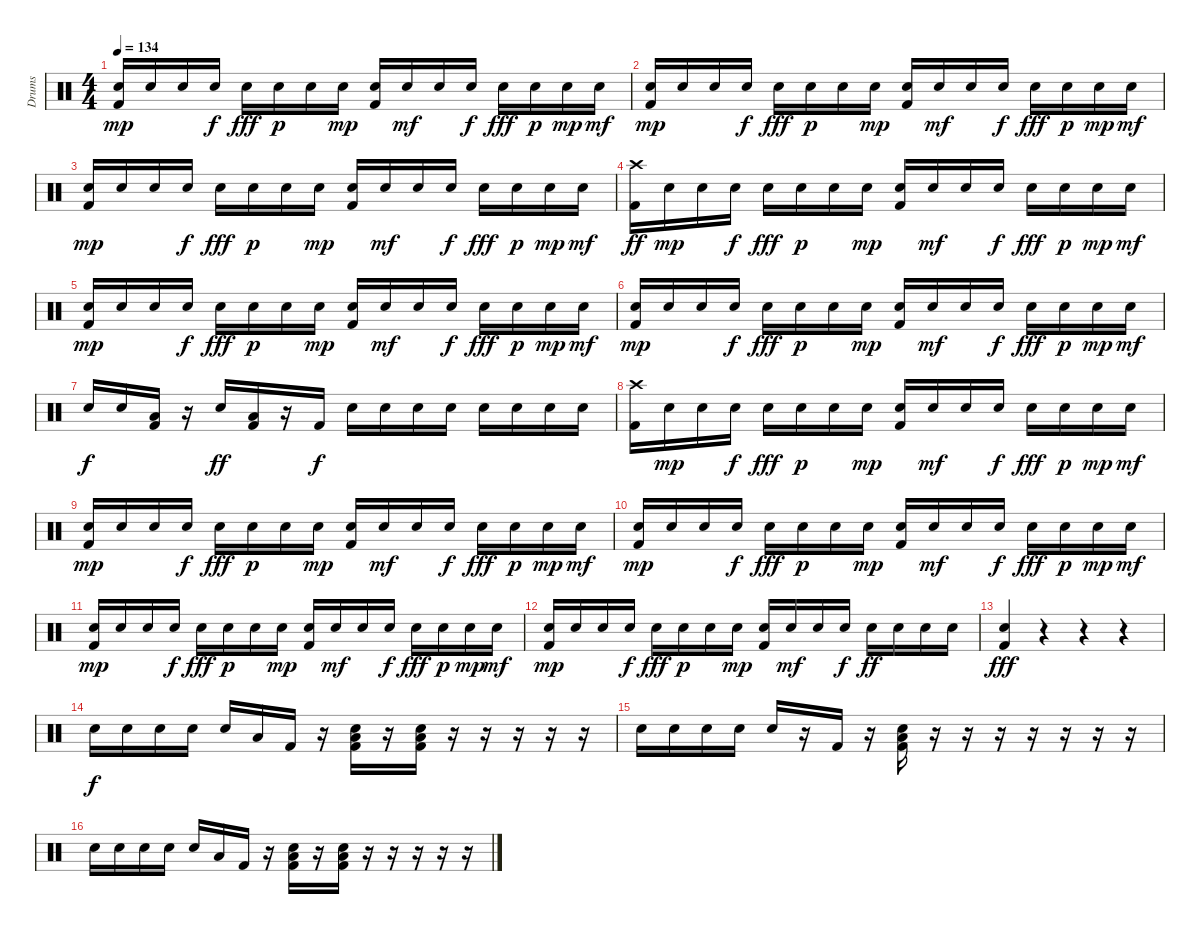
\track ("Drums" "Drums") {instrument percussion}
\staff {score}
\articulation defaults
\ts (4 4)
\tempo 134
\clef neutral
\ks c
("Snare (hit) 2" "Kick (hit) 2").16{dy mp} "Snare (hit) 2".16 "Snare (hit) 2".16 "Snare (hit) 2".16{dy f} "Snare (hit) 2".16{dy fff} "Snare (hit) 2".16{dy p} "Snare (hit) 2".16 "Snare (hit) 2".16{dy mp} ("Snare (hit) 2" "Kick (hit) 2").16 "Snare (hit) 2".16{dy mf} "Snare (hit) 2".16 "Snare (hit) 2".16{dy f} "Snare (hit) 2".16{dy fff} "Snare (hit) 2".16{dy p} "Snare (hit) 2".16{dy mp} "Snare (hit) 2".16{dy mf} |
("Snare (hit) 2" "Kick (hit) 2").16{dy mp} "Snare (hit) 2".16 "Snare (hit) 2".16 "Snare (hit) 2".16{dy f} "Snare (hit) 2".16{dy fff} "Snare (hit) 2".16{dy p} "Snare (hit) 2".16 "Snare (hit) 2".16{dy mp} ("Snare (hit) 2" "Kick (hit) 2").16 "Snare (hit) 2".16{dy mf} "Snare (hit) 2".16 "Snare (hit) 2".16{dy f} "Snare (hit) 2".16{dy fff} "Snare (hit) 2".16{dy p} "Snare (hit) 2".16{dy mp} "Snare (hit) 2".16{dy mf} |
("Snare (hit) 2" "Kick (hit) 2").16{dy mp} "Snare (hit) 2".16 "Snare (hit) 2".16 "Snare (hit) 2".16{dy f} "Snare (hit) 2".16{dy fff} "Snare (hit) 2".16{dy p} "Snare (hit) 2".16 "Snare (hit) 2".16{dy mp} ("Snare (hit) 2" "Kick (hit) 2").16 "Snare (hit) 2".16{dy mf} "Snare (hit) 2".16 "Snare (hit) 2".16{dy f} "Snare (hit) 2".16{dy fff} "Snare (hit) 2".16{dy p} "Snare (hit) 2".16{dy mp} "Snare (hit) 2".16{dy mf} |
("Crash high (hit)" "Kick (hit) 2").16{dy ff} "Snare (hit) 2".16{dy mp} "Snare (hit) 2".16 "Snare (hit) 2".16{dy f} "Snare (hit) 2".16{dy fff} "Snare (hit) 2".16{dy p} "Snare (hit) 2".16 "Snare (hit) 2".16{dy mp} ("Snare (hit) 2" "Kick (hit) 2").16 "Snare (hit) 2".16{dy mf} "Snare (hit) 2".16 "Snare (hit) 2".16{dy f} "Snare (hit) 2".16{dy fff} "Snare (hit) 2".16{dy p} "Snare (hit) 2".16{dy mp} "Snare (hit) 2".16{dy mf} |
("Snare (hit) 2" "Kick (hit) 2").16{dy mp} "Snare (hit) 2".16 "Snare (hit) 2".16 "Snare (hit) 2".16{dy f} "Snare (hit) 2".16{dy fff} "Snare (hit) 2".16{dy p} "Snare (hit) 2".16 "Snare (hit) 2".16{dy mp} ("Snare (hit) 2" "Kick (hit) 2").16 "Snare (hit) 2".16{dy mf} "Snare (hit) 2".16 "Snare (hit) 2".16{dy f} "Snare (hit) 2".16{dy fff} "Snare (hit) 2".16{dy p} "Snare (hit) 2".16{dy mp} "Snare (hit) 2".16{dy mf} |
("Snare (hit) 2" "Kick (hit) 2").16{dy mp} "Snare (hit) 2".16 "Snare (hit) 2".16 "Snare (hit) 2".16{dy f} "Snare (hit) 2".16{dy fff} "Snare (hit) 2".16{dy p} "Snare (hit) 2".16 "Snare (hit) 2".16{dy mp} ("Snare (hit) 2" "Kick (hit) 2").16 "Snare (hit) 2".16{dy mf} "Snare (hit) 2".16 "Snare (hit) 2".16{dy f} "Snare (hit) 2".16{dy fff} "Snare (hit) 2".16{dy p} "Snare (hit) 2".16{dy mp} "Snare (hit) 2".16{dy mf} |
"Snare (hit) 2".16{dy f} "Snare (hit) 2".16 ("Low Floor Tom (hit)" "Kick (hit) 2").16 r.16 "Snare (hit) 2".16{dy ff} ("Low Floor Tom (hit)" "Kick (hit) 2").16 r.16 "Kick (hit) 2".16{dy f} "Snare (hit) 2".16 "Snare (hit) 2".16 "Snare (hit) 2".16 "Snare (hit) 2".16 "Snare (hit) 2".16 "Snare (hit) 2".16 "Snare (hit) 2".16 "Snare (hit) 2".16 |
("Crash high (hit)" "Kick (hit) 2").16 "Snare (hit) 2".16{dy mp} "Snare (hit) 2".16 "Snare (hit) 2".16{dy f} "Snare (hit) 2".16{dy fff} "Snare (hit) 2".16{dy p} "Snare (hit) 2".16 "Snare (hit) 2".16{dy mp} ("Snare (hit) 2" "Kick (hit) 2").16 "Snare (hit) 2".16{dy mf} "Snare (hit) 2".16 "Snare (hit) 2".16{dy f} "Snare (hit) 2".16{dy fff} "Snare (hit) 2".16{dy p} "Snare (hit) 2".16{dy mp} "Snare (hit) 2".16{dy mf} |
("Snare (hit) 2" "Kick (hit) 2").16{dy mp} "Snare (hit) 2".16 "Snare (hit) 2".16 "Snare (hit) 2".16{dy f} "Snare (hit) 2".16{dy fff} "Snare (hit) 2".16{dy p} "Snare (hit) 2".16 "Snare (hit) 2".16{dy mp} ("Snare (hit) 2" "Kick (hit) 2").16 "Snare (hit) 2".16{dy mf} "Snare (hit) 2".16 "Snare (hit) 2".16{dy f} "Snare (hit) 2".16{dy fff} "Snare (hit) 2".16{dy p} "Snare (hit) 2".16{dy mp} "Snare (hit) 2".16{dy mf} |
("Snare (hit) 2" "Kick (hit) 2").16{dy mp} "Snare (hit) 2".16 "Snare (hit) 2".16 "Snare (hit) 2".16{dy f} "Snare (hit) 2".16{dy fff} "Snare (hit) 2".16{dy p} "Snare (hit) 2".16 "Snare (hit) 2".16{dy mp} ("Snare (hit) 2" "Kick (hit) 2").16 "Snare (hit) 2".16{dy mf} "Snare (hit) 2".16 "Snare (hit) 2".16{dy f} "Snare (hit) 2".16{dy fff} "Snare (hit) 2".16{dy p} "Snare (hit) 2".16{dy mp} "Snare (hit) 2".16{dy mf} |
("Snare (hit) 2" "Kick (hit) 2").16{dy mp} "Snare (hit) 2".16 "Snare (hit) 2".16 "Snare (hit) 2".16{dy f} "Snare (hit) 2".16{dy fff} "Snare (hit) 2".16{dy p} "Snare (hit) 2".16 "Snare (hit) 2".16{dy mp} ("Snare (hit) 2" "Kick (hit) 2").16 "Snare (hit) 2".16{dy mf} "Snare (hit) 2".16 "Snare (hit) 2".16{dy f} "Snare (hit) 2".16{dy fff} "Snare (hit) 2".16{dy p} "Snare (hit) 2".16{dy mp} "Snare (hit) 2".16{dy mf} |
("Snare (hit) 2" "Kick (hit) 2").16{dy mp} "Snare (hit) 2".16 "Snare (hit) 2".16 "Snare (hit) 2".16{dy f} "Snare (hit) 2".16{dy fff} "Snare (hit) 2".16{dy p} "Snare (hit) 2".16 "Snare (hit) 2".16{dy mp} ("Snare (hit) 2" "Kick (hit) 2").16 "Snare (hit) 2".16{dy mf} "Snare (hit) 2".16 "Snare (hit) 2".16{dy f} "Snare (hit) 2".16{dy ff} "Snare (hit) 2".16 "Snare (hit) 2".16 "Snare (hit) 2".16 |
("Snare (hit) 2" "Kick (hit) 2").4{dy fff} r.4 r.4 r.4 |
"Snare (hit) 2".16{dy f} "Snare (hit) 2".16 "Snare (hit) 2".16 "Snare (hit) 2".16 "Snare (hit) 2".16 "Low Floor Tom (hit)".16 "Kick (hit) 2".16 r.16 ("Snare (hit) 2" "Low Floor Tom (hit)" "Kick (hit) 2").16 r.16 ("Snare (hit) 2" "Low Floor Tom (hit)" "Kick (hit) 2").16 r.16 r.16 r.16 r.16 r.16 |
"Snare (hit) 2".16 "Snare (hit) 2".16 "Snare (hit) 2".16 "Snare (hit) 2".16 "Snare (hit) 2".16 r.16 "Kick (hit) 2".16 r.16 ("Snare (hit) 2" "Low Floor Tom (hit)" "Kick (hit) 2").16 r.16 r.16 r.16 r.16 r.16 r.16 r.16 |
"Snare (hit) 2".16 "Snare (hit) 2".16 "Snare (hit) 2".16 "Snare (hit) 2".16 "Snare (hit) 2".16 "Low Floor Tom (hit)".16 "Kick (hit) 2".16 r.16 ("Snare (hit) 2" "Low Floor Tom (hit)" "Kick (hit) 2").16 r.16 ("Snare (hit) 2" "Low Floor Tom (hit)" "Kick (hit) 2").16 r.16 r.16 r.16 r.16 r.16
